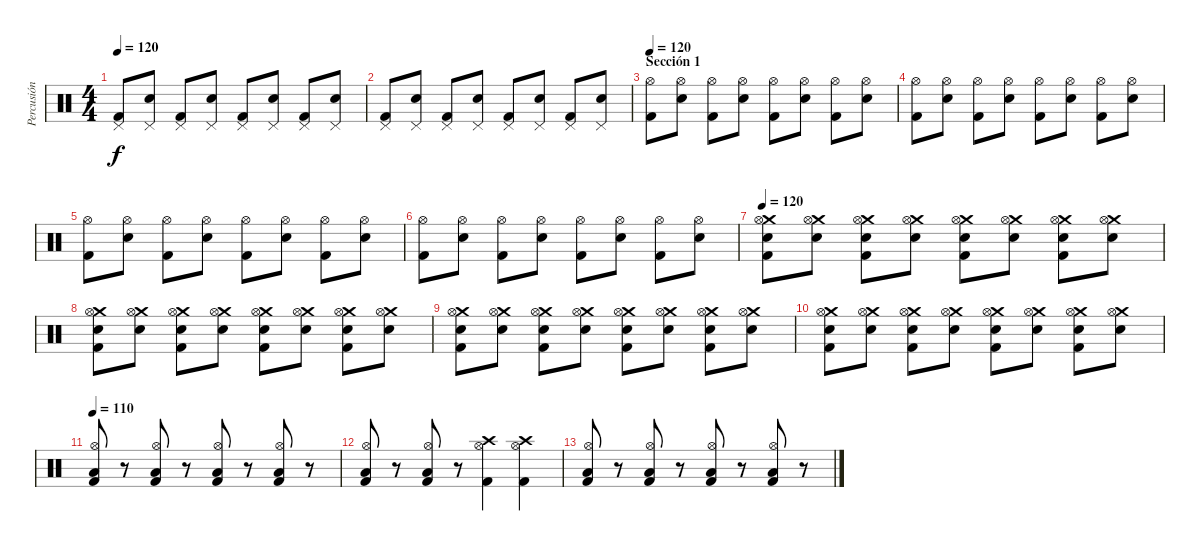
\track ("Percusión" "Percusión") {instrument percussion}
\staff {score}
\articulation defaults
\ts (4 4)
\tempo 120
\clef neutral
\ks c
("Pedal Hi-Hat (hit)" "Kick (hit) 2").8{dy f} ("Pedal Hi-Hat (hit)" "Electric Snare (hit)").8 ("Pedal Hi-Hat (hit)" "Kick (hit) 2").8 ("Pedal Hi-Hat (hit)" "Electric Snare (hit)").8 ("Pedal Hi-Hat (hit)" "Kick (hit) 2").8 ("Pedal Hi-Hat (hit)" "Electric Snare (hit)").8 ("Pedal Hi-Hat (hit)" "Kick (hit) 2").8 ("Pedal Hi-Hat (hit)" "Electric Snare (hit)").8 |
("Pedal Hi-Hat (hit)" "Kick (hit) 2").8 ("Pedal Hi-Hat (hit)" "Electric Snare (hit)").8 ("Pedal Hi-Hat (hit)" "Kick (hit) 2").8 ("Pedal Hi-Hat (hit)" "Electric Snare (hit)").8 ("Pedal Hi-Hat (hit)" "Kick (hit) 2").8 ("Pedal Hi-Hat (hit)" "Electric Snare (hit)").8 ("Pedal Hi-Hat (hit)" "Kick (hit) 2").8 ("Pedal Hi-Hat (hit)" "Electric Snare (hit)").8 |
\section ("" "Sección 1")
\tempo 120
("Hi-Hat (open)" "Kick (hit) 2").8 ("Hi-Hat (open)" "Electric Snare (hit)").8 ("Hi-Hat (open)" "Kick (hit) 2").8 ("Hi-Hat (open)" "Electric Snare (hit)").8 ("Hi-Hat (open)" "Kick (hit) 2").8 ("Hi-Hat (open)" "Electric Snare (hit)").8 ("Hi-Hat (open)" "Kick (hit) 2").8 ("Hi-Hat (open)" "Electric Snare (hit)").8 |
("Hi-Hat (open)" "Kick (hit) 2").8 ("Hi-Hat (open)" "Electric Snare (hit)").8 ("Hi-Hat (open)" "Kick (hit) 2").8 ("Hi-Hat (open)" "Electric Snare (hit)").8 ("Hi-Hat (open)" "Kick (hit) 2").8 ("Hi-Hat (open)" "Electric Snare (hit)").8 ("Hi-Hat (open)" "Kick (hit) 2").8 ("Hi-Hat (open)" "Electric Snare (hit)").8 |
("Hi-Hat (open)" "Kick (hit) 2").8 ("Hi-Hat (open)" "Electric Snare (hit)").8 ("Hi-Hat (open)" "Kick (hit) 2").8 ("Hi-Hat (open)" "Electric Snare (hit)").8 ("Hi-Hat (open)" "Kick (hit) 2").8 ("Hi-Hat (open)" "Electric Snare (hit)").8 ("Hi-Hat (open)" "Kick (hit) 2").8 ("Hi-Hat (open)" "Electric Snare (hit)").8 |
("Hi-Hat (open)" "Kick (hit) 2").8 ("Hi-Hat (open)" "Electric Snare (hit)").8 ("Hi-Hat (open)" "Kick (hit) 2").8 ("Hi-Hat (open)" "Electric Snare (hit)").8 ("Hi-Hat (open)" "Kick (hit) 2").8 ("Hi-Hat (open)" "Electric Snare (hit)").8 ("Hi-Hat (open)" "Kick (hit) 2").8 ("Hi-Hat (open)" "Electric Snare (hit)").8 |
\tempo 120
("Crash medium (hit)" "Hi-Hat (open)" "Electric Snare (hit)" "Kick (hit) 2").8 ("Crash medium (hit)" "Hi-Hat (open)" "Electric Snare (hit)").8 ("Crash medium (hit)" "Hi-Hat (open)" "Electric Snare (hit)" "Kick (hit) 2").8 ("Crash medium (hit)" "Hi-Hat (open)" "Electric Snare (hit)").8 ("Crash medium (hit)" "Hi-Hat (open)" "Electric Snare (hit)" "Kick (hit) 2").8 ("Crash medium (hit)" "Hi-Hat (open)" "Electric Snare (hit)").8 ("Crash medium (hit)" "Hi-Hat (open)" "Electric Snare (hit)" "Kick (hit) 2").8 ("Crash medium (hit)" "Hi-Hat (open)" "Electric Snare (hit)").8 |
("Crash medium (hit)" "Hi-Hat (open)" "Electric Snare (hit)" "Kick (hit) 2").8 ("Crash medium (hit)" "Hi-Hat (open)" "Electric Snare (hit)").8 ("Crash medium (hit)" "Hi-Hat (open)" "Electric Snare (hit)" "Kick (hit) 2").8 ("Crash medium (hit)" "Hi-Hat (open)" "Electric Snare (hit)").8 ("Crash medium (hit)" "Hi-Hat (open)" "Electric Snare (hit)" "Kick (hit) 2").8 ("Crash medium (hit)" "Hi-Hat (open)" "Electric Snare (hit)").8 ("Crash medium (hit)" "Hi-Hat (open)" "Electric Snare (hit)" "Kick (hit) 2").8 ("Crash medium (hit)" "Hi-Hat (open)" "Electric Snare (hit)").8 |
("Crash medium (hit)" "Hi-Hat (open)" "Electric Snare (hit)" "Kick (hit) 2").8 ("Crash medium (hit)" "Hi-Hat (open)" "Electric Snare (hit)").8 ("Crash medium (hit)" "Hi-Hat (open)" "Electric Snare (hit)" "Kick (hit) 2").8 ("Crash medium (hit)" "Hi-Hat (open)" "Electric Snare (hit)").8 ("Crash medium (hit)" "Hi-Hat (open)" "Electric Snare (hit)" "Kick (hit) 2").8 ("Crash medium (hit)" "Hi-Hat (open)" "Electric Snare (hit)").8 ("Crash medium (hit)" "Hi-Hat (open)" "Electric Snare (hit)" "Kick (hit) 2").8 ("Crash medium (hit)" "Hi-Hat (open)" "Electric Snare (hit)").8 |
("Crash medium (hit)" "Hi-Hat (open)" "Electric Snare (hit)" "Kick (hit) 2").8 ("Crash medium (hit)" "Hi-Hat (open)" "Electric Snare (hit)").8 ("Crash medium (hit)" "Hi-Hat (open)" "Electric Snare (hit)" "Kick (hit) 2").8 ("Crash medium (hit)" "Hi-Hat (open)" "Electric Snare (hit)").8 ("Crash medium (hit)" "Hi-Hat (open)" "Electric Snare (hit)" "Kick (hit) 2").8 ("Crash medium (hit)" "Hi-Hat (open)" "Electric Snare (hit)").8 ("Crash medium (hit)" "Hi-Hat (open)" "Electric Snare (hit)" "Kick (hit) 2").8 ("Crash medium (hit)" "Hi-Hat (open)" "Electric Snare (hit)").8 |
\tempo 110
("Hi-Hat (open)" "Low Floor Tom (hit)" "Kick (hit) 2").8 r.8 ("Hi-Hat (open)" "Low Floor Tom (hit)" "Kick (hit) 2").8 r.8 ("Hi-Hat (open)" "Low Floor Tom (hit)" "Kick (hit) 2").8 r.8 ("Hi-Hat (open)" "Low Floor Tom (hit)" "Kick (hit) 2").8 r.8 |
("Hi-Hat (open)" "Low Floor Tom (hit)" "Kick (hit) 2").8 r.8 ("Hi-Hat (open)" "Low Floor Tom (hit)" "Kick (hit) 2").8 r.8 ("Crash high (hit)" "Hi-Hat (open)" "Kick (hit) 2").4 ("Crash high (hit)" "Hi-Hat (open)" "Kick (hit) 2").4 |
("Hi-Hat (open)" "Low Floor Tom (hit)" "Kick (hit) 2").8 r.8 ("Hi-Hat (open)" "Low Floor Tom (hit)" "Kick (hit) 2").8 r.8 ("Hi-Hat (open)" "Low Floor Tom (hit)" "Kick (hit) 2").8 r.8 ("Hi-Hat (open)" "Low Floor Tom (hit)" "Kick (hit) 2").8 r.8
